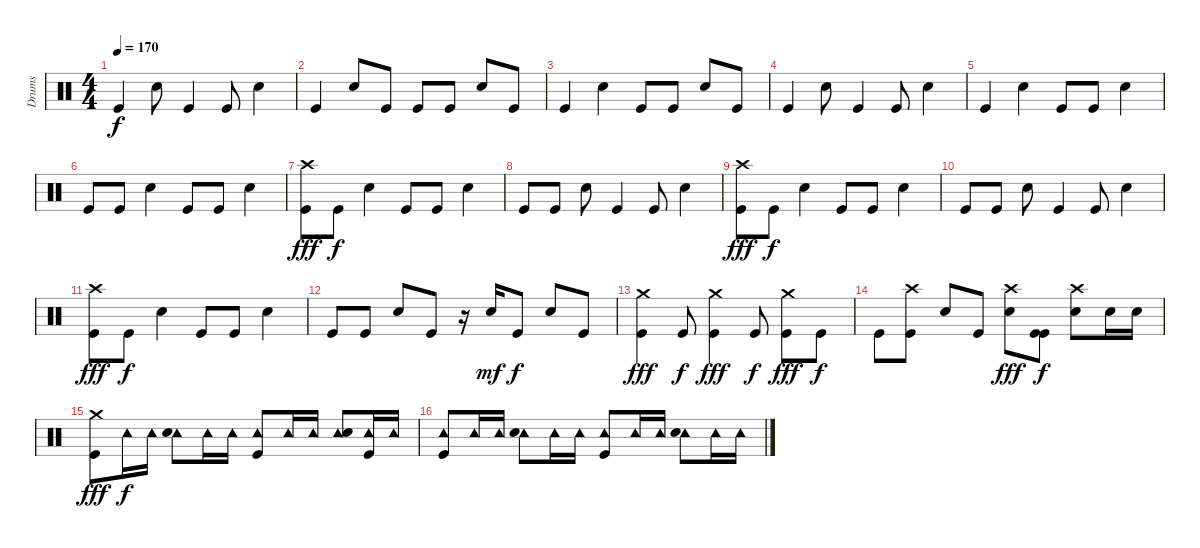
\track ("Drums" "Drums") {instrument percussion}
\staff {score}
\articulation defaults
\ts (4 4)
\tempo 170
\clef neutral
\ks c "Kick (hit)".4{dy f} "Electric Snare (hit)".8 "Kick (hit)".4 "Kick (hit)".8 "Electric Snare (hit)".4
|
"Kick (hit)".4 "Electric Snare (hit)".8 "Kick (hit)".8 "Kick (hit)".8 "Kick (hit)".8 "Electric Snare (hit)".8 "Kick (hit)".8 |
"Kick (hit)".4 "Electric Snare (hit)".4 "Kick (hit)".8 "Kick (hit)".8 "Electric Snare (hit)".8 "Kick (hit)".8 |
"Kick (hit)".4 "Electric Snare (hit)".8 "Kick (hit)".4 "Kick (hit)".8 "Electric Snare (hit)".4 |
"Kick (hit)".4 "Electric Snare (hit)".4 "Kick (hit)".8 "Kick (hit)".8 "Electric Snare (hit)".4 |
"Kick (hit)".8 "Kick (hit)".8 "Electric Snare (hit)".4 "Kick (hit)".8 "Kick (hit)".8 "Electric Snare (hit)".4 |
("Crash high (hit)" "Kick (hit)").8{dy fff} "Kick (hit)".8{dy f} "Electric Snare (hit)".4 "Kick (hit)".8 "Kick (hit)".8 "Electric Snare (hit)".4 |
"Kick (hit)".8 "Kick (hit)".8 "Electric Snare (hit)".8 "Kick (hit)".4 "Kick (hit)".8 "Electric Snare (hit)".4 |
("Crash high (hit)" "Kick (hit)").8{dy fff} "Kick (hit)".8{dy f} "Electric Snare (hit)".4 "Kick (hit)".8 "Kick (hit)".8 "Electric Snare (hit)".4 |
"Kick (hit)".8 "Kick (hit)".8 "Electric Snare (hit)".8 "Kick (hit)".4 "Kick (hit)".8 "Electric Snare (hit)".4 |
("Crash high (hit)" "Kick (hit)").8{dy fff} "Kick (hit)".8{dy f} "Electric Snare (hit)".4 "Kick (hit)".8 "Kick (hit)".8 "Electric Snare (hit)".4 |
"Kick (hit)".8 "Kick (hit)".8 "Electric Snare (hit)".8 "Kick (hit)".8 r.16 "Electric Snare (hit)".16{dy mf} "Kick (hit)".8{dy f} "Electric Snare (hit)".8 "Kick (hit)".8 |
("Crash medium (hit)" "Kick (hit)").4{dy fff} "Kick (hit)".8{dy f} ("Crash medium (hit)" "Kick (hit)").4{dy fff} "Kick (hit)".8{dy f} ("Crash medium (hit)" "Kick (hit)").8{dy fff} "Kick (hit)".8{dy f} |
"Kick (hit)".8 ("Crash high (hit)" "Kick (hit)").8 "Electric Snare (hit)".8 "Kick (hit)".8 ("Crash high (hit)" "Electric Snare (hit)").8{dy fff} ("Kick (hit)" "Kick (hit)").8{dy f} ("Crash high (hit)" "Electric Snare (hit)").8 "Electric Snare (hit)".16 "Electric Snare (hit)".16 |
("Crash medium (hit)" "Kick (hit)").8{dy fff} "Tambourine (hit)".16{dy f} "Tambourine (hit)".16 ("Tambourine (hit)" "Electric Snare (hit)").8 "Tambourine (hit)".16 "Tambourine (hit)".16 ("Tambourine (hit)" "Kick (hit)").8 "Tambourine (hit)".16 "Tambourine (hit)".16 ("Tambourine (hit)" "Electric Snare (hit)").8 ("Tambourine (hit)" "Kick (hit)").16 "Tambourine (hit)".16 |
("Tambourine (hit)" "Kick (hit)").8 "Tambourine (hit)".16 "Tambourine (hit)".16 ("Tambourine (hit)" "Electric Snare (hit)").8 "Tambourine (hit)".16 "Tambourine (hit)".16 ("Tambourine (hit)" "Kick (hit)").8 "Tambourine (hit)".16 "Tambourine (hit)".16 ("Tambourine (hit)" "Electric Snare (hit)").8 "Tambourine (hit)".16 "Tambourine (hit)".16
